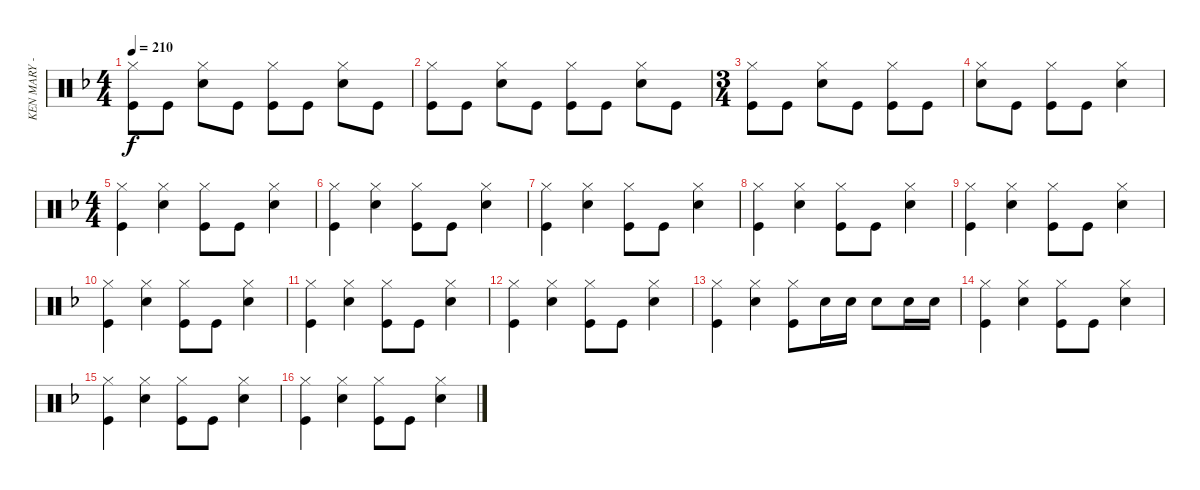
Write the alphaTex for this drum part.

\track ("KEN MARY - DRUMS" "KEN MARY -") {instrument percussion}
\staff {score}
\articulation defaults
\ts (4 4)
\tempo 210
\clef neutral
\ks f
("Hi-Hat (closed)" "Kick (hit)").8{dy f} "Kick (hit)".8 ("Hi-Hat (closed)" "Snare (hit) 2").8 "Kick (hit)".8 ("Hi-Hat (closed)" "Kick (hit)").8 "Kick (hit)".8 ("Hi-Hat (closed)" "Snare (hit) 2").8 "Kick (hit)".8 |
("Hi-Hat (closed)" "Kick (hit)").8 "Kick (hit)".8 ("Hi-Hat (closed)" "Snare (hit) 2").8 "Kick (hit)".8 ("Hi-Hat (closed)" "Kick (hit)").8 "Kick (hit)".8 ("Hi-Hat (closed)" "Snare (hit) 2").8 "Kick (hit)".8 |
\ts (3 4)
("Hi-Hat (closed)" "Kick (hit)").8 "Kick (hit)".8 ("Hi-Hat (closed)" "Snare (hit) 2").8 "Kick (hit)".8 ("Hi-Hat (closed)" "Kick (hit)").8 "Kick (hit)".8 |
("Hi-Hat (closed)" "Snare (hit) 2").8 "Kick (hit)".8 ("Hi-Hat (closed)" "Kick (hit)").8 "Kick (hit)".8 ("Hi-Hat (closed)" "Snare (hit) 2").4 |
\ts (4 4)
("Hi-Hat (closed)" "Kick (hit)").4 ("Hi-Hat (closed)" "Snare (hit) 2").4 ("Hi-Hat (closed)" "Kick (hit)").8 "Kick (hit)".8 ("Hi-Hat (closed)" "Snare (hit) 2").4 |
("Hi-Hat (closed)" "Kick (hit)").4 ("Hi-Hat (closed)" "Snare (hit) 2").4 ("Hi-Hat (closed)" "Kick (hit)").8 "Kick (hit)".8 ("Hi-Hat (closed)" "Snare (hit) 2").4 |
("Hi-Hat (closed)" "Kick (hit)").4 ("Hi-Hat (closed)" "Snare (hit) 2").4 ("Hi-Hat (closed)" "Kick (hit)").8 "Kick (hit)".8 ("Hi-Hat (closed)" "Snare (hit) 2").4 |
("Hi-Hat (closed)" "Kick (hit)").4 ("Hi-Hat (closed)" "Snare (hit) 2").4 ("Hi-Hat (closed)" "Kick (hit)").8 "Kick (hit)".8 ("Hi-Hat (closed)" "Snare (hit) 2").4 |
("Hi-Hat (closed)" "Kick (hit)").4 ("Hi-Hat (closed)" "Snare (hit) 2").4 ("Hi-Hat (closed)" "Kick (hit)").8 "Kick (hit)".8 ("Hi-Hat (closed)" "Snare (hit) 2").4 |
("Hi-Hat (closed)" "Kick (hit)").4 ("Hi-Hat (closed)" "Snare (hit) 2").4 ("Hi-Hat (closed)" "Kick (hit)").8 "Kick (hit)".8 ("Hi-Hat (closed)" "Snare (hit) 2").4 |
("Hi-Hat (closed)" "Kick (hit)").4 ("Hi-Hat (closed)" "Snare (hit) 2").4 ("Hi-Hat (closed)" "Kick (hit)").8 "Kick (hit)".8 ("Hi-Hat (closed)" "Snare (hit) 2").4 |
("Hi-Hat (closed)" "Kick (hit)").4 ("Hi-Hat (closed)" "Snare (hit) 2").4 ("Hi-Hat (closed)" "Kick (hit)").8 "Kick (hit)".8 ("Hi-Hat (closed)" "Snare (hit) 2").4 |
("Hi-Hat (closed)" "Kick (hit)").4 ("Hi-Hat (closed)" "Snare (hit) 2").4 ("Hi-Hat (closed)" "Kick (hit)").8 "Snare (hit) 2".16 "Snare (hit) 2".16 "Snare (hit) 2".8 "Snare (hit) 2".16 "Snare (hit) 2".16 |
("Hi-Hat (closed)" "Kick (hit)").4 ("Hi-Hat (closed)" "Snare (hit) 2").4 ("Hi-Hat (closed)" "Kick (hit)").8 "Kick (hit)".8 ("Hi-Hat (closed)" "Snare (hit) 2").4 |
("Hi-Hat (closed)" "Kick (hit)").4 ("Hi-Hat (closed)" "Snare (hit) 2").4 ("Hi-Hat (closed)" "Kick (hit)").8 "Kick (hit)".8 ("Hi-Hat (closed)" "Snare (hit) 2").4 |
("Hi-Hat (closed)" "Kick (hit)").4 ("Hi-Hat (closed)" "Snare (hit) 2").4 ("Hi-Hat (closed)" "Kick (hit)").8 "Kick (hit)".8 ("Hi-Hat (closed)" "Snare (hit) 2").4
